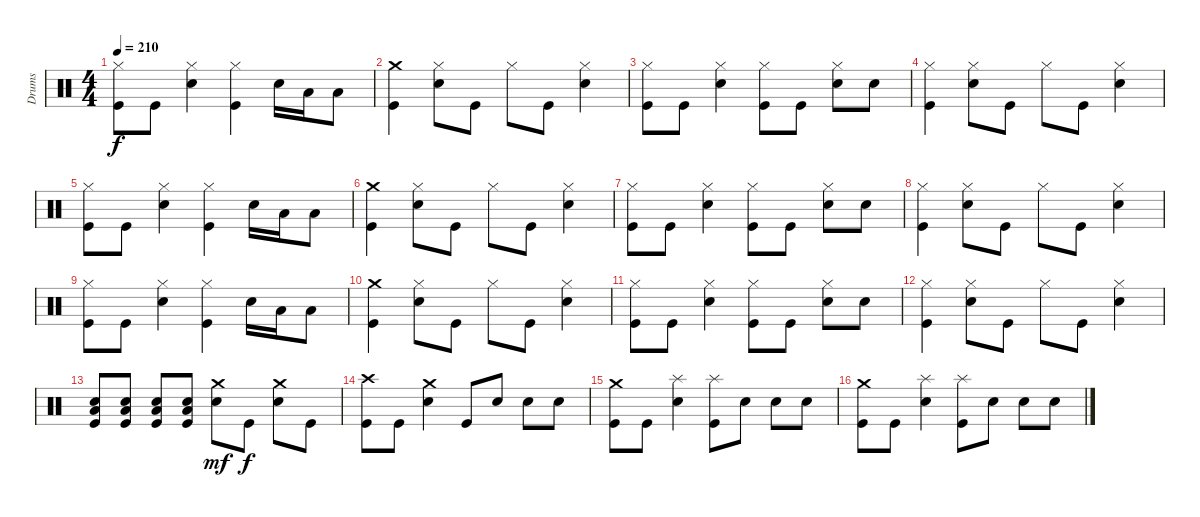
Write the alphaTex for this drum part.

\track ("Drums" "Drums") {instrument percussion}
\staff {score}
\articulation defaults
\ts (4 4)
\tempo 210
\clef neutral
\ks c
("Hi-Hat (closed)" "Kick (hit)").8{dy f} "Kick (hit)".8 ("Hi-Hat (closed)" "Electric Snare (hit)").4 ("Hi-Hat (closed)" "Kick (hit)").4 "Electric Snare (hit)".16 "Low Tom (hit)".16 "Low Tom (hit)".8 |
("Crash medium (hit)" "Kick (hit)").4 ("Hi-Hat (closed)" "Electric Snare (hit)").8 "Kick (hit)".8 "Hi-Hat (closed)".8 "Kick (hit)".8 ("Hi-Hat (closed)" "Electric Snare (hit)").4 |
("Hi-Hat (closed)" "Kick (hit)").8 "Kick (hit)".8 ("Hi-Hat (closed)" "Electric Snare (hit)").4 ("Hi-Hat (closed)" "Kick (hit)").8 "Kick (hit)".8 ("Hi-Hat (closed)" "Electric Snare (hit)").8 "Electric Snare (hit)".8 |
("Hi-Hat (closed)" "Kick (hit)").4 ("Hi-Hat (closed)" "Electric Snare (hit)").8 "Kick (hit)".8 "Hi-Hat (closed)".8 "Kick (hit)".8 ("Hi-Hat (closed)" "Electric Snare (hit)").4 |
("Hi-Hat (closed)" "Kick (hit)").8 "Kick (hit)".8 ("Hi-Hat (closed)" "Electric Snare (hit)").4 ("Hi-Hat (closed)" "Kick (hit)").4 "Electric Snare (hit)".16 "Low Tom (hit)".16 "Low Tom (hit)".8 |
("Crash medium (hit)" "Kick (hit)").4 ("Hi-Hat (closed)" "Electric Snare (hit)").8 "Kick (hit)".8 "Hi-Hat (closed)".8 "Kick (hit)".8 ("Hi-Hat (closed)" "Electric Snare (hit)").4 |
("Hi-Hat (closed)" "Kick (hit)").8 "Kick (hit)".8 ("Hi-Hat (closed)" "Electric Snare (hit)").4 ("Hi-Hat (closed)" "Kick (hit)").8 "Kick (hit)".8 ("Hi-Hat (closed)" "Electric Snare (hit)").8 "Electric Snare (hit)".8 |
("Hi-Hat (closed)" "Kick (hit)").4 ("Hi-Hat (closed)" "Electric Snare (hit)").8 "Kick (hit)".8 "Hi-Hat (closed)".8 "Kick (hit)".8 ("Hi-Hat (closed)" "Electric Snare (hit)").4 |
("Hi-Hat (closed)" "Kick (hit)").8 "Kick (hit)".8 ("Hi-Hat (closed)" "Electric Snare (hit)").4 ("Hi-Hat (closed)" "Kick (hit)").4 "Electric Snare (hit)".16 "Low Tom (hit)".16 "Low Tom (hit)".8 |
("Crash medium (hit)" "Kick (hit)").4 ("Hi-Hat (closed)" "Electric Snare (hit)").8 "Kick (hit)".8 "Hi-Hat (closed)".8 "Kick (hit)".8 ("Hi-Hat (closed)" "Electric Snare (hit)").4 |
("Hi-Hat (closed)" "Kick (hit)").8 "Kick (hit)".8 ("Hi-Hat (closed)" "Electric Snare (hit)").4 ("Hi-Hat (closed)" "Kick (hit)").8 "Kick (hit)".8 ("Hi-Hat (closed)" "Electric Snare (hit)").8 "Electric Snare (hit)".8 |
("Hi-Hat (closed)" "Kick (hit)").4 ("Hi-Hat (closed)" "Electric Snare (hit)").8 "Kick (hit)".8 "Hi-Hat (closed)".8 "Kick (hit)".8 ("Hi-Hat (closed)" "Electric Snare (hit)").4 |
("Low Floor Tom (hit)" "Electric Snare (hit)" "Kick (hit)").8 ("Low Floor Tom (hit)" "Electric Snare (hit)" "Kick (hit)").8 ("Low Floor Tom (hit)" "Electric Snare (hit)" "Kick (hit)").8 ("Low Floor Tom (hit)" "Electric Snare (hit)" "Kick (hit)").8 ("Crash medium (hit)" "Electric Snare (hit)").8{dy mf} "Kick (hit)".8{dy f} ("Crash medium (hit)" "Electric Snare (hit)").8 "Kick (hit)".8 |
("Crash high (hit)" "Kick (hit)").8 "Kick (hit)".8 ("Crash medium (hit)" "Electric Snare (hit)").4 "Kick (hit)".8 "Electric Snare (hit)".8 "Electric Snare (hit)".8 "Electric Snare (hit)".8 |
("Crash medium (hit)" "Kick (hit)").8 "Kick (hit)".8 ("Splash (hit)" "Electric Snare (hit)").4 ("Splash (hit)" "Kick (hit)").8 "Electric Snare (hit)".8 "Electric Snare (hit)".8 "Electric Snare (hit)".8 |
("Crash medium (hit)" "Kick (hit)").8 "Kick (hit)".8 ("Splash (hit)" "Electric Snare (hit)").4 ("Splash (hit)" "Kick (hit)").8 "Electric Snare (hit)".8 "Electric Snare (hit)".8 "Electric Snare (hit)".8
